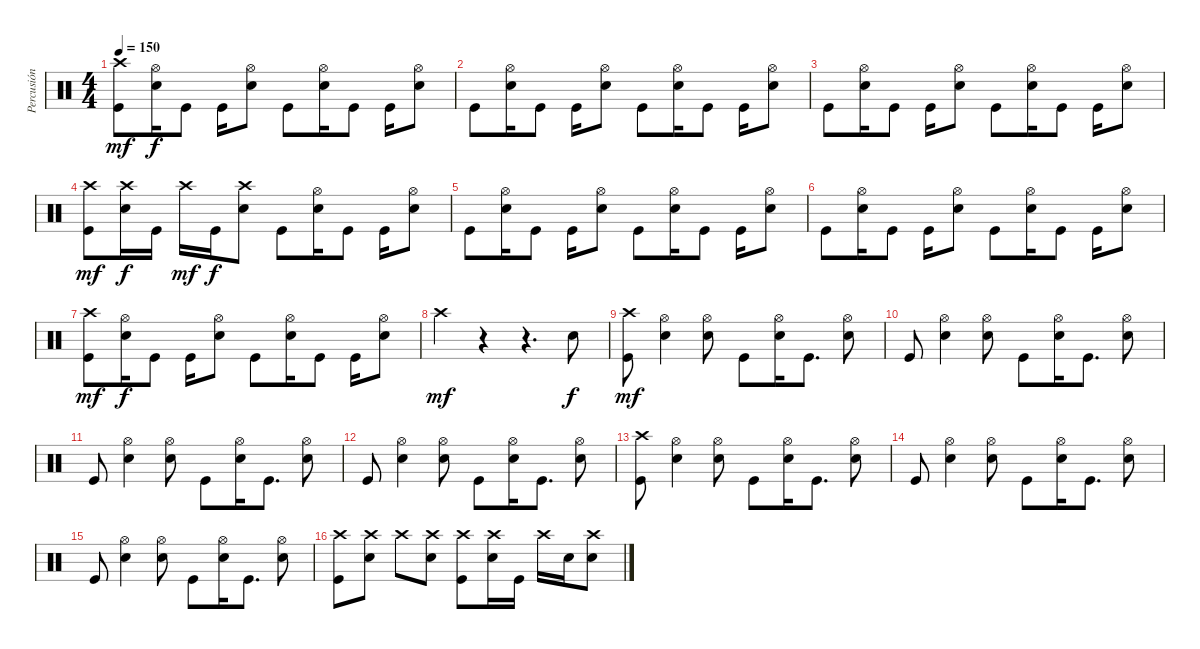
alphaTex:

\track ("Percusión" "Percusión") {instrument percussion}
\staff {score}
\articulation defaults
\ts (4 4)
\tempo 150
\clef neutral
\ks c
("Kick (hit)" "Crash high (hit)").8{dy mf} ("Snare (hit) 2" "Hi-Hat (open)").16{dy f} "Kick (hit)".8 "Kick (hit)".16 ("Snare (hit) 2" "Hi-Hat (open)").8 "Kick (hit)".8 ("Snare (hit) 2" "Hi-Hat (open)").16 "Kick (hit)".8 "Kick (hit)".16 ("Snare (hit) 2" "Hi-Hat (open)").8 |
"Kick (hit)".8 ("Snare (hit) 2" "Hi-Hat (open)").16 "Kick (hit)".8 "Kick (hit)".16 ("Snare (hit) 2" "Hi-Hat (open)").8 "Kick (hit)".8 ("Snare (hit) 2" "Hi-Hat (open)").16 "Kick (hit)".8 "Kick (hit)".16 ("Snare (hit) 2" "Hi-Hat (open)").8 |
"Kick (hit)".8 ("Snare (hit) 2" "Hi-Hat (open)").16 "Kick (hit)".8 "Kick (hit)".16 ("Snare (hit) 2" "Hi-Hat (open)").8 "Kick (hit)".8 ("Snare (hit) 2" "Hi-Hat (open)").16 "Kick (hit)".8 "Kick (hit)".16 ("Snare (hit) 2" "Hi-Hat (open)").8 |
("Kick (hit)" "Crash high (hit)").8{dy mf} ("Snare (hit) 2" "Crash high (hit)").16{dy f} "Kick (hit)".16 "Crash high (hit)".16{dy mf} "Kick (hit)".16{dy f} ("Snare (hit) 2" "Crash high (hit)").8 "Kick (hit)".8 ("Snare (hit) 2" "Hi-Hat (open)").16 "Kick (hit)".8 "Kick (hit)".16 ("Snare (hit) 2" "Hi-Hat (open)").8 |
"Kick (hit)".8 ("Snare (hit) 2" "Hi-Hat (open)").16 "Kick (hit)".8 "Kick (hit)".16 ("Snare (hit) 2" "Hi-Hat (open)").8 "Kick (hit)".8 ("Snare (hit) 2" "Hi-Hat (open)").16 "Kick (hit)".8 "Kick (hit)".16 ("Snare (hit) 2" "Hi-Hat (open)").8 |
"Kick (hit)".8 ("Snare (hit) 2" "Hi-Hat (open)").16 "Kick (hit)".8 "Kick (hit)".16 ("Snare (hit) 2" "Hi-Hat (open)").8 "Kick (hit)".8 ("Snare (hit) 2" "Hi-Hat (open)").16 "Kick (hit)".8 "Kick (hit)".16 ("Snare (hit) 2" "Hi-Hat (open)").8 |
("Kick (hit)" "Crash high (hit)").8{dy mf} ("Snare (hit) 2" "Hi-Hat (open)").16{dy f} "Kick (hit)".8 "Kick (hit)".16 ("Snare (hit) 2" "Hi-Hat (open)").8 "Kick (hit)".8 ("Snare (hit) 2" "Hi-Hat (open)").16 "Kick (hit)".8 "Kick (hit)".16 ("Snare (hit) 2" "Hi-Hat (open)").8 |
"Crash high (hit)".4{dy mf} r.4 r.4{d} "Snare (hit) 2".8{dy f} |
("Kick (hit)" "Crash high (hit)").8{dy mf} ("Snare (hit) 2" "Hi-Hat (open)").4 ("Snare (hit) 2" "Hi-Hat (open)").8 "Kick (hit)".8 ("Snare (hit) 2" "Hi-Hat (open)").16 "Kick (hit)".8{d} ("Snare (hit) 2" "Hi-Hat (open)").8 |
"Kick (hit)".8 ("Snare (hit) 2" "Hi-Hat (open)").4 ("Snare (hit) 2" "Hi-Hat (open)").8 "Kick (hit)".8 ("Snare (hit) 2" "Hi-Hat (open)").16 "Kick (hit)".8{d} ("Snare (hit) 2" "Hi-Hat (open)").8 |
"Kick (hit)".8 ("Snare (hit) 2" "Hi-Hat (open)").4 ("Snare (hit) 2" "Hi-Hat (open)").8 "Kick (hit)".8 ("Snare (hit) 2" "Hi-Hat (open)").16 "Kick (hit)".8{d} ("Snare (hit) 2" "Hi-Hat (open)").8 |
"Kick (hit)".8 ("Snare (hit) 2" "Hi-Hat (open)").4 ("Snare (hit) 2" "Hi-Hat (open)").8 "Kick (hit)".8 ("Snare (hit) 2" "Hi-Hat (open)").16 "Kick (hit)".8{d} ("Snare (hit) 2" "Hi-Hat (open)").8 |
("Kick (hit)" "Crash high (hit)").8 ("Snare (hit) 2" "Hi-Hat (open)").4 ("Snare (hit) 2" "Hi-Hat (open)").8 "Kick (hit)".8 ("Snare (hit) 2" "Hi-Hat (open)").16 "Kick (hit)".8{d} ("Snare (hit) 2" "Hi-Hat (open)").8 |
"Kick (hit)".8 ("Snare (hit) 2" "Hi-Hat (open)").4 ("Snare (hit) 2" "Hi-Hat (open)").8 "Kick (hit)".8 ("Snare (hit) 2" "Hi-Hat (open)").16 "Kick (hit)".8{d} ("Snare (hit) 2" "Hi-Hat (open)").8 |
"Kick (hit)".8 ("Snare (hit) 2" "Hi-Hat (open)").4 ("Snare (hit) 2" "Hi-Hat (open)").8 "Kick (hit)".8 ("Snare (hit) 2" "Hi-Hat (open)").16 "Kick (hit)".8{d} ("Snare (hit) 2" "Hi-Hat (open)").8 |
("Kick (hit)" "Crash high (hit)").8 ("Snare (hit) 2" "Crash high (hit)").8 "Crash high (hit)".8 ("Snare (hit) 2" "Crash high (hit)").8 ("Kick (hit)" "Crash high (hit)").8 ("Snare (hit) 2" "Crash high (hit)").16 "Kick (hit)".16 "Crash high (hit)".16 "Snare (hit) 2".16 ("Snare (hit) 2" "Crash high (hit)").8
